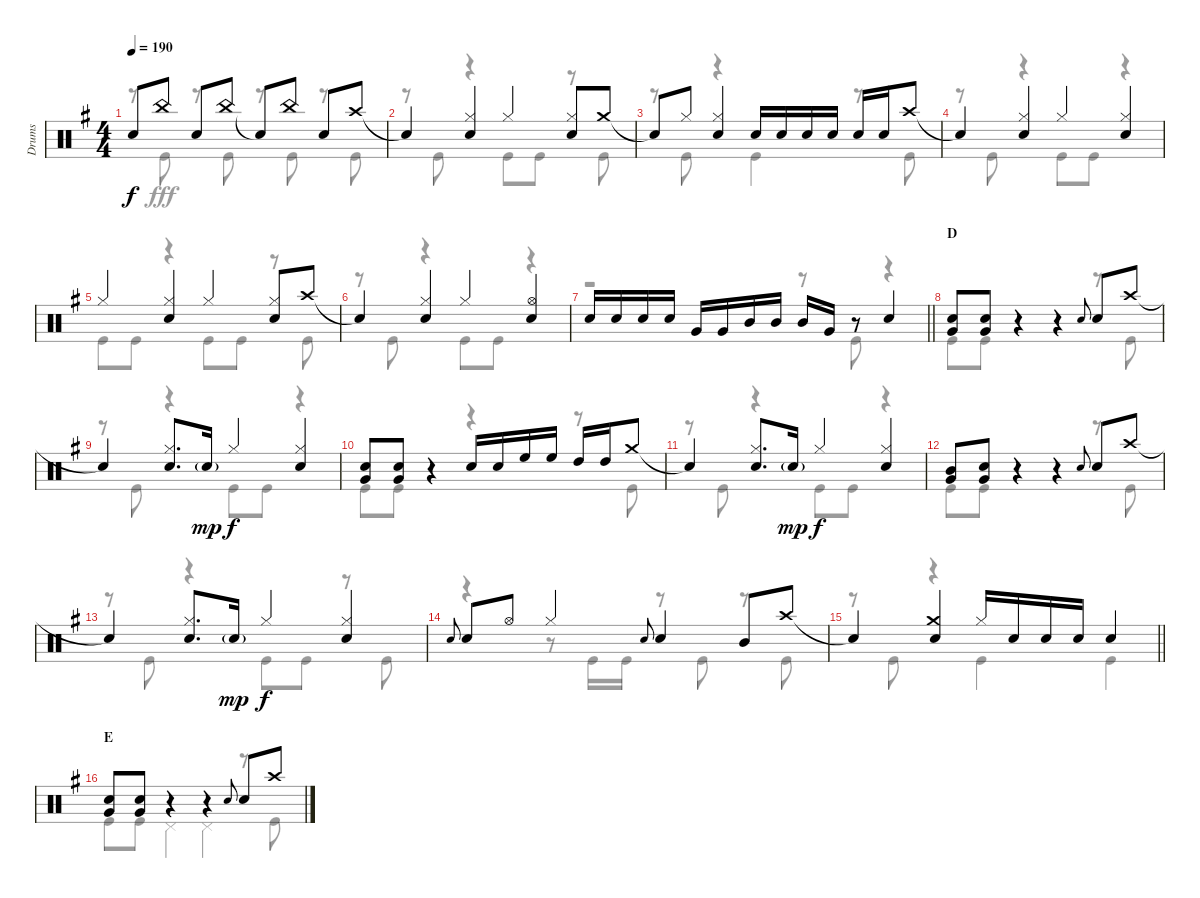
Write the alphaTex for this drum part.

\track ("Drums" "Drums") {instrument percussion}
\staff {score}
\articulation defaults
\voice
\ts (4 4)
\tempo 190
\clef neutral
\ks g "Snare (hit)"{t}.8{dy f} "China (hit)".8 "Snare (hit) 2".8 "China (hit)".8 "Snare (hit)"{t}.8 "China (hit)".8 "Snare (hit) 2".8 "Crash high (hit)".8
|
"Snare (hit)"{t}.4 ("Hi-Hat (closed)" "Snare (hit) 2").4 "Hi-Hat (closed)".4 ("Hi-Hat (closed)" "Snare (hit) 2").8 "Crash medium (hit)".8 |
"Snare (hit)"{t}.8 "Hi-Hat (closed)".8 ("Hi-Hat (closed)" "Snare (hit) 2").4 "Snare (hit) 2".16 "Snare (hit) 2".16 "Snare (hit) 2".16 "Snare (hit) 2".16 "Snare (hit) 2".16 "Snare (hit) 2".16 "Crash high (hit)".8 |
"Snare (hit)"{t}.4 ("Hi-Hat (closed)" "Snare (hit) 2").4 "Hi-Hat (closed)".4 ("Hi-Hat (closed)" "Snare (hit) 2").4 |
"Hi-Hat (closed)".4 ("Hi-Hat (closed)" "Snare (hit) 2").4 "Hi-Hat (closed)".4 ("Hi-Hat (closed)" "Snare (hit) 2").8 "Crash high (hit)".8 |
"Snare (hit)"{t}.4 ("Hi-Hat (closed)" "Snare (hit) 2").4 "Hi-Hat (closed)".4 ("Hi-Hat (open)" "Snare (hit) 2").4 |
\barLineRight lightlight "Snare (hit) 2".16 "Snare (hit) 2".16 "Snare (hit) 2".16 "Snare (hit) 2".16 "Very Low Tom (hit)".16 "Very Low Tom (hit)".16 "Mid Tom (hit)".16 "Mid Tom (hit)".16 "Mid Tom (hit)".16 "Very Low Tom (hit)".16
r.8 "Snare (hit) 2".4 |
\section ("" "D")
("Snare (hit) 2" "Very Low Tom (hit)").8 ("Snare (hit) 2" "Very Low Tom (hit)").8 r.4 r.4 "Snare (hit) 2".8{gr onbeat} "Snare (hit) 2".8 "Crash high (hit)".8 |
"Snare (hit)"{t}.4 ("Hi-Hat (closed)" "Snare (hit) 2").8{d} "Snare (hit) 2"{g}.16{dy mp} "Hi-Hat (closed)".4{dy f} ("Hi-Hat (closed)" "Snare (hit) 2").4 |
("Snare (hit) 2" "Very Low Tom (hit)").8 ("Snare (hit) 2" "Very Low Tom (hit)").8 r.4 "Snare (hit) 2".16 "Snare (hit) 2".16 "High Floor Tom (hit)".16 "High Floor Tom (hit)".16 "High Tom (hit)".16 "High Tom (hit)".16 "Crash medium (hit)".8 |
"Snare (hit)"{t}.4 ("Hi-Hat (closed)" "Snare (hit) 2").8{d} "Snare (hit) 2"{g}.16{dy mp} "Hi-Hat (closed)".4{dy f} ("Hi-Hat (closed)" "Snare (hit) 2").4 |
("Mid Tom (hit)" "Very Low Tom (hit)").8 ("Snare (hit) 2" "Very Low Tom (hit)").8 r.4 r.4 "Snare (hit) 2".8{gr onbeat} "Snare (hit) 2".8 "Crash high (hit)".8 |
"Snare (hit)"{t}.4 ("Hi-Hat (closed)" "Snare (hit) 2").8{d} "Snare (hit) 2"{g}.16{dy mp} "Hi-Hat (closed)".4{dy f} ("Hi-Hat (closed)" "Snare (hit) 2").4 |
"Snare (hit) 2".8{gr onbeat} "Snare (hit) 2".8 "Hi-Hat (open)".8 "Hi-Hat (closed)".4 "Snare (hit) 2".8{gr onbeat} "Snare (hit) 2".4 "Mid Tom (hit)".8 "Crash high (hit)".8 |
\barLineRight lightlight "Snare (hit)"{t}.4
("Crash medium (hit)" "Snare (hit) 2").4 "Hi-Hat (closed)".16 "Snare (hit) 2".16 "Snare (hit) 2".16 "Snare (hit) 2".16 "Snare (hit) 2".4 |
\section ("" "E")
("Snare (hit) 2" "Very Low Tom (hit)").8 ("Snare (hit) 2" "Very Low Tom (hit)").8 r.4 r.4 "Snare (hit) 2".8{gr onbeat} "Snare (hit) 2".8 "Crash high (hit)".8
\voice
\clef neutral
\ottava regular
\simile none
\ks g
r.8{dy fff} "Kick (hit)".8 r.8 "Kick (hit)".8 r.8 "Kick (hit)".8 r.8 "Kick (hit)".8 |
r.8 "Kick (hit)".8 r.4 "Kick (hit)".8 "Kick (hit)".8 r.8 "Kick (hit)".8 |
r.8 "Kick (hit)".8 r.4 "Kick (hit)".4 r.8 "Kick (hit)".8 |
r.8 "Kick (hit)".8 r.4 "Kick (hit)".8 "Kick (hit)".8 r.4 |
"Kick (hit)".8 "Kick (hit)".8 r.4 "Kick (hit)".8 "Kick (hit)".8 r.8 "Kick (hit)".8 |
r.8 "Kick (hit)".8 r.4 "Kick (hit)".8 "Kick (hit)".8 r.4 |
\barLineRight lightlight
r.2 r.8 "Kick (hit)".8 r.4 |
"Kick (hit)".8 "Kick (hit)".8 r.4 r.4 r.8 "Kick (hit)".8 |
r.8 "Kick (hit)".8 r.4 "Kick (hit)".8 "Kick (hit)".8 r.4 |
"Kick (hit)".8 "Kick (hit)".8 r.4 r.4 r.8 "Kick (hit)".8 |
r.8 "Kick (hit)".8 r.4 "Kick (hit)".8 "Kick (hit)".8 r.4 |
"Kick (hit)".8 "Kick (hit)".8 r.4 r.4 r.8 "Kick (hit)".8 |
r.8 "Kick (hit)".8 r.4 "Kick (hit)".8 "Kick (hit)".8 r.8 "Kick (hit)".8 |
r.4 r.8 "Kick (hit)".16 "Kick (hit)".16 r.8 "Kick (hit)".8 r.8 "Kick (hit)".8 |
\barLineRight lightlight
r.8 "Kick (hit)".8 r.4 "Kick (hit)".4 "Kick (hit)".4 |
"Kick (hit)".8 "Kick (hit)".8 "Pedal Hi-Hat (hit)".4 "Pedal Hi-Hat (hit)".4 r.8 "Kick (hit)".8
